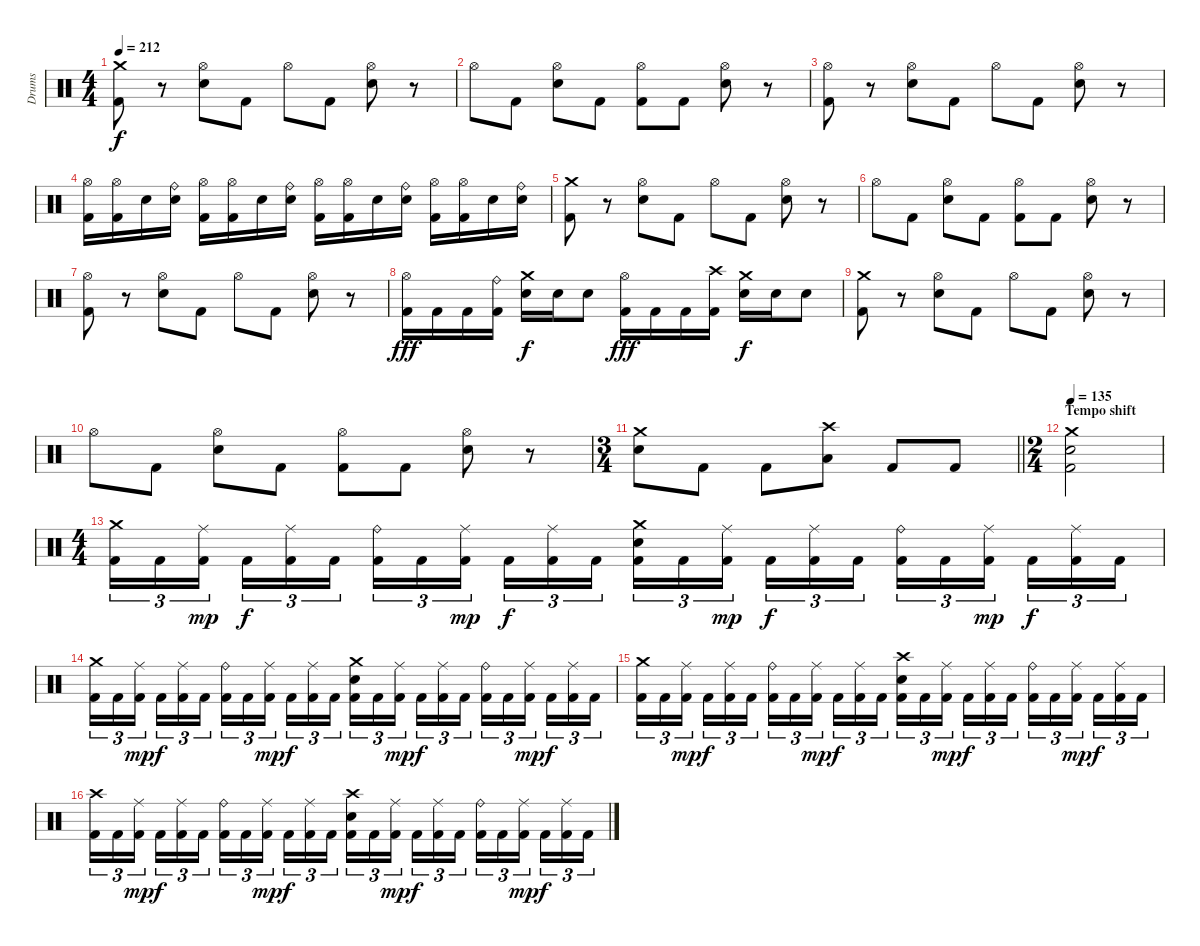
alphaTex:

\track ("Drums" "Drums") {instrument percussion}
\staff {score}
\articulation defaults
\ts (4 4)
\tempo 212
\clef neutral
\ks c
("Crash medium (hit)" "Kick (hit) 2").8{dy f} r.8 ("Hi-Hat (open)" "Electric Snare (hit)").8 "Kick (hit) 2".8 "Hi-Hat (open)".8 "Kick (hit) 2".8 ("Hi-Hat (open)" "Electric Snare (hit)").8 r.8 |
"Hi-Hat (open)".8 "Kick (hit) 2".8 ("Hi-Hat (open)" "Electric Snare (hit)").8 "Kick (hit) 2".8 ("Hi-Hat (open)" "Kick (hit) 2").8 "Kick (hit) 2".8 ("Hi-Hat (open)" "Electric Snare (hit)").8 r.8 |
("Hi-Hat (open)" "Kick (hit) 2").8 r.8 ("Hi-Hat (open)" "Electric Snare (hit)").8 "Kick (hit) 2".8 "Hi-Hat (open)".8 "Kick (hit) 2".8 ("Hi-Hat (open)" "Electric Snare (hit)").8 r.8 |
("Hi-Hat (open)" "Kick (hit) 2").16 ("Hi-Hat (open)" "Kick (hit) 2").16 "Electric Snare (hit)".16 ("Ride (bell)" "Electric Snare (hit)").16 ("Hi-Hat (open)" "Kick (hit) 2").16 ("Hi-Hat (open)" "Kick (hit) 2").16 "Electric Snare (hit)".16 ("Ride (bell)" "Electric Snare (hit)").16 ("Hi-Hat (open)" "Kick (hit) 2").16 ("Hi-Hat (open)" "Kick (hit) 2").16 "Electric Snare (hit)".16 ("Ride (bell)" "Electric Snare (hit)").16 ("Hi-Hat (open)" "Kick (hit) 2").16 ("Hi-Hat (open)" "Kick (hit) 2").16 "Electric Snare (hit)".16 ("Ride (bell)" "Electric Snare (hit)").16 |
("Crash medium (hit)" "Kick (hit) 2").8 r.8 ("Hi-Hat (open)" "Electric Snare (hit)").8 "Kick (hit) 2".8 "Hi-Hat (open)".8 "Kick (hit) 2".8 ("Hi-Hat (open)" "Electric Snare (hit)").8 r.8 |
"Hi-Hat (open)".8 "Kick (hit) 2".8 ("Hi-Hat (open)" "Electric Snare (hit)").8 "Kick (hit) 2".8 ("Hi-Hat (open)" "Kick (hit) 2").8 "Kick (hit) 2".8 ("Hi-Hat (open)" "Electric Snare (hit)").8 r.8 |
("Hi-Hat (open)" "Kick (hit) 2").8 r.8 ("Hi-Hat (open)" "Electric Snare (hit)").8 "Kick (hit) 2".8 "Hi-Hat (open)".8 "Kick (hit) 2".8 ("Hi-Hat (open)" "Electric Snare (hit)").8 r.8 |
("Hi-Hat (open)" "Kick (hit) 2").16{dy fff} "Kick (hit) 2".16 "Kick (hit) 2".16 ("Ride (bell)" "Kick (hit) 2").16 ("Crash medium (hit)" "Electric Snare (hit)").16{dy f} "Electric Snare (hit)".16 "Electric Snare (hit)".8 ("Hi-Hat (open)" "Kick (hit) 2").16{dy fff} "Kick (hit) 2".16 "Kick (hit) 2".16 ("Crash high (hit)" "Kick (hit) 2").16 ("Crash medium (hit)" "Electric Snare (hit)").16{dy f} "Electric Snare (hit)".16 "Electric Snare (hit)".8 |
("Crash medium (hit)" "Kick (hit) 2").8 r.8 ("Hi-Hat (open)" "Electric Snare (hit)").8 "Kick (hit) 2".8 "Hi-Hat (open)".8 "Kick (hit) 2".8 ("Hi-Hat (open)" "Electric Snare (hit)").8 r.8 |
"Hi-Hat (open)".8 "Kick (hit) 2".8 ("Hi-Hat (open)" "Electric Snare (hit)").8 "Kick (hit) 2".8 ("Hi-Hat (open)" "Kick (hit) 2").8 "Kick (hit) 2".8 ("Hi-Hat (open)" "Electric Snare (hit)").8 r.8 |
\ts (3 4)
\barLineRight lightlight
("Crash medium (hit)" "Electric Snare (hit)").8 "Kick (hit) 2".8 "Kick (hit) 2".8 ("Crash high (hit)" "Low Tom (hit)").8 "Kick (hit) 2".8 "Kick (hit) 2".8 |
\ts (2 4)
\section ("" "Tempo shift")
\tempo 135
("Crash medium (hit)" "Electric Snare (hit)" "Kick (hit) 2").2 |
\ts (4 4)
("Crash medium (hit)" "Kick (hit) 2").16{tu (3 2)} "Kick (hit) 2".16{tu (3 2)} ("Ride (middle)" "Kick (hit) 2").16{tu (3 2) dy mp beam splitsecondary} "Kick (hit) 2".16{tu (3 2) dy f} ("Ride (middle)" "Kick (hit) 2").16{tu (3 2)} "Kick (hit) 2".16{tu (3 2)} ("Ride (bell)" "Kick (hit) 2").16{tu (3 2)} "Kick (hit) 2".16{tu (3 2)} ("Ride (middle)" "Kick (hit) 2").16{tu (3 2) dy mp beam splitsecondary} "Kick (hit) 2".16{tu (3 2) dy f} ("Ride (middle)" "Kick (hit) 2").16{tu (3 2)} "Kick (hit) 2".16{tu (3 2)} ("Crash medium (hit)" "Electric Snare (hit)" "Kick (hit) 2").16{tu (3 2)} "Kick (hit) 2".16{tu (3 2)} ("Ride (middle)" "Kick (hit) 2").16{tu (3 2) dy mp beam splitsecondary} "Kick (hit) 2".16{tu (3 2) dy f} ("Ride (middle)" "Kick (hit) 2").16{tu (3 2)} "Kick (hit) 2".16{tu (3 2)} ("Ride (bell)" "Kick (hit) 2").16{tu (3 2)} "Kick (hit) 2".16{tu (3 2)} ("Ride (middle)" "Kick (hit) 2").16{tu (3 2) dy mp beam splitsecondary} "Kick (hit) 2".16{tu (3 2) dy f} ("Ride (middle)" "Kick (hit) 2").16{tu (3 2)} "Kick (hit) 2".16{tu (3 2)} |
("Crash medium (hit)" "Kick (hit) 2").16{tu (3 2)} "Kick (hit) 2".16{tu (3 2)} ("Ride (middle)" "Kick (hit) 2").16{tu (3 2) dy mp beam splitsecondary} "Kick (hit) 2".16{tu (3 2) dy f} ("Ride (middle)" "Kick (hit) 2").16{tu (3 2)} "Kick (hit) 2".16{tu (3 2)} ("Ride (bell)" "Kick (hit) 2").16{tu (3 2)} "Kick (hit) 2".16{tu (3 2)} ("Ride (middle)" "Kick (hit) 2").16{tu (3 2) dy mp beam splitsecondary} "Kick (hit) 2".16{tu (3 2) dy f} ("Ride (middle)" "Kick (hit) 2").16{tu (3 2)} "Kick (hit) 2".16{tu (3 2)} ("Crash medium (hit)" "Electric Snare (hit)" "Kick (hit) 2").16{tu (3 2)} "Kick (hit) 2".16{tu (3 2)} ("Ride (middle)" "Kick (hit) 2").16{tu (3 2) dy mp beam splitsecondary} "Kick (hit) 2".16{tu (3 2) dy f} ("Ride (middle)" "Kick (hit) 2").16{tu (3 2)} "Kick (hit) 2".16{tu (3 2)} ("Ride (bell)" "Kick (hit) 2").16{tu (3 2)} "Kick (hit) 2".16{tu (3 2)} ("Ride (middle)" "Kick (hit) 2").16{tu (3 2) dy mp beam splitsecondary} "Kick (hit) 2".16{tu (3 2) dy f} ("Ride (middle)" "Kick (hit) 2").16{tu (3 2)} "Kick (hit) 2".16{tu (3 2)} |
("Crash medium (hit)" "Kick (hit) 2").16{tu (3 2)} "Kick (hit) 2".16{tu (3 2)} ("Ride (middle)" "Kick (hit) 2").16{tu (3 2) dy mp beam splitsecondary} "Kick (hit) 2".16{tu (3 2) dy f} ("Ride (middle)" "Kick (hit) 2").16{tu (3 2)} "Kick (hit) 2".16{tu (3 2)} ("Ride (bell)" "Kick (hit) 2").16{tu (3 2)} "Kick (hit) 2".16{tu (3 2)} ("Ride (middle)" "Kick (hit) 2").16{tu (3 2) dy mp beam splitsecondary} "Kick (hit) 2".16{tu (3 2) dy f} ("Ride (middle)" "Kick (hit) 2").16{tu (3 2)} "Kick (hit) 2".16{tu (3 2)} ("Crash high (hit)" "Electric Snare (hit)" "Kick (hit) 2").16{tu (3 2)} "Kick (hit) 2".16{tu (3 2)} ("Ride (middle)" "Kick (hit) 2").16{tu (3 2) dy mp beam splitsecondary} "Kick (hit) 2".16{tu (3 2) dy f} ("Ride (middle)" "Kick (hit) 2").16{tu (3 2)} "Kick (hit) 2".16{tu (3 2)} ("Ride (bell)" "Kick (hit) 2").16{tu (3 2)} "Kick (hit) 2".16{tu (3 2)} ("Ride (middle)" "Kick (hit) 2").16{tu (3 2) dy mp beam splitsecondary} "Kick (hit) 2".16{tu (3 2) dy f} ("Ride (middle)" "Kick (hit) 2").16{tu (3 2)} "Kick (hit) 2".16{tu (3 2)} |
("Crash high (hit)" "Kick (hit) 2").16{tu (3 2)} "Kick (hit) 2".16{tu (3 2)} ("Ride (middle)" "Kick (hit) 2").16{tu (3 2) dy mp beam splitsecondary} "Kick (hit) 2".16{tu (3 2) dy f} ("Ride (middle)" "Kick (hit) 2").16{tu (3 2)} "Kick (hit) 2".16{tu (3 2)} ("Ride (bell)" "Kick (hit) 2").16{tu (3 2)} "Kick (hit) 2".16{tu (3 2)} ("Ride (middle)" "Kick (hit) 2").16{tu (3 2) dy mp beam splitsecondary} "Kick (hit) 2".16{tu (3 2) dy f} ("Ride (middle)" "Kick (hit) 2").16{tu (3 2)} "Kick (hit) 2".16{tu (3 2)} ("Crash high (hit)" "Electric Snare (hit)" "Kick (hit) 2").16{tu (3 2)} "Kick (hit) 2".16{tu (3 2)} ("Ride (middle)" "Kick (hit) 2").16{tu (3 2) dy mp beam splitsecondary} "Kick (hit) 2".16{tu (3 2) dy f} ("Ride (middle)" "Kick (hit) 2").16{tu (3 2)} "Kick (hit) 2".16{tu (3 2)} ("Ride (bell)" "Kick (hit) 2").16{tu (3 2)} "Kick (hit) 2".16{tu (3 2)} ("Ride (middle)" "Kick (hit) 2").16{tu (3 2) dy mp beam splitsecondary} "Kick (hit) 2".16{tu (3 2) dy f} ("Ride (middle)" "Kick (hit) 2").16{tu (3 2)} "Kick (hit) 2".16{tu (3 2)}
